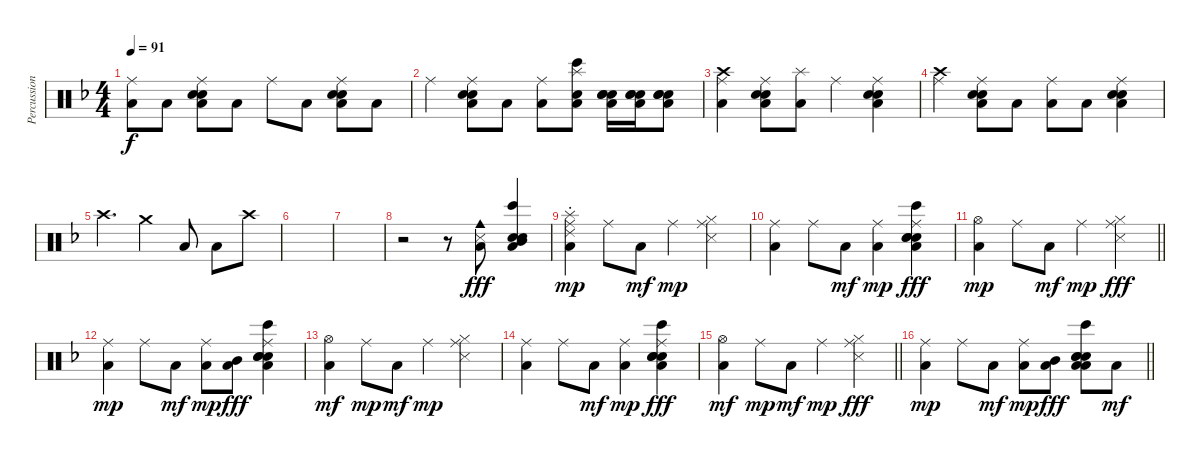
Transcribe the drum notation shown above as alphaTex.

\track ("Percussion" "Percussion") {instrument percussion}
\staff {score}
\articulation defaults
\ts (4 4)
\tempo 91
\clef neutral
\ks f
("Low Floor Tom (hit)" "Ride (middle)").8{dy f} "Low Floor Tom (hit)".8 ("Electric Snare (hit)" "Low Floor Tom (hit)" "Snare (hit) 2" "Ride (middle)").8 "Low Floor Tom (hit)".8 "Ride (middle)".8 "Low Floor Tom (hit)".8 ("Electric Snare (hit)" "Low Floor Tom (hit)" "Snare (hit) 2" "Ride (middle)").8 "Low Floor Tom (hit)".8 |
"Ride (middle)".4 ("Electric Snare (hit)" "Low Floor Tom (hit)" "Snare (hit) 2" "Ride (middle)").8 "Low Floor Tom (hit)".8 ("Low Floor Tom (hit)" "Ride (middle)").8 ("Bongo High (hit)" "Low Floor Tom (hit)" "Snare (hit) 2" "Splash (hit)").8 ("Low Floor Tom (hit)" "Snare (hit) 2" "Electric Snare (hit)" "Hand Clap (hit)").16 ("Low Floor Tom (hit)" "Snare (hit) 2" "Electric Snare (hit)" "Hand Clap (hit)").16 ("Low Floor Tom (hit)" "Snare (hit) 2" "Electric Snare (hit)" "Hand Clap (hit)").8 |
("Low Floor Tom (hit)" "Crash high (hit)" "Ride (middle)").4 ("Low Floor Tom (hit)" "Snare (hit) 2" "Electric Snare (hit)" "Ride (middle)").8 ("Low Floor Tom (hit)" "Splash (hit)").8 "Ride (middle)".4 ("Electric Snare (hit)" "Snare (hit) 2" "Low Floor Tom (hit)" "Ride (middle)").4 |
("Crash high (hit)" "Ride (middle)").4 ("Low Floor Tom (hit)" "Snare (hit) 2" "Electric Snare (hit)" "Ride (middle)").8 "Low Floor Tom (hit)".8 ("Low Floor Tom (hit)" "Ride (middle)").8 "Low Floor Tom (hit)".8 ("Electric Snare (hit)" "Low Floor Tom (hit)" "Ride (middle)" "Snare (hit) 2").4 |
"Crash high (hit)".4{d} "Crash medium (hit)".4 "Low Floor Tom (hit)".8 "Low Floor Tom (hit)".8 "Crash high (hit)".8 |
|
|
r.2 r.8 ("Low Floor Tom (hit)" "Cowbell medium (hit)" "Snare (side stick) 3").8{dy fff} ("Low Floor Tom (hit)" "Electric Snare (hit)" "Mid Tom (hit)" "Snare (hit) 2" "Bongo High (hit)").4 |
("Low Floor Tom (hit)" "Splash (hit)" "Ride (choke) 2" "Ride (middle)").4{dy mp} "Ride (middle)".8 "Low Floor Tom (hit)".8{dy mf} "Ride (middle)".4{dy mp} ("Hi-Hat (closed)" "Snare (side stick) 3" "Ride (middle)").4 |
("Low Floor Tom (hit)" "Ride (middle)").4 "Ride (middle)".8 "Low Floor Tom (hit)".8{dy mf} ("Low Floor Tom (hit)" "Ride (middle)").4{dy mp} ("Low Floor Tom (hit)" "Ride (middle)" "Snare (hit) 2" "Electric Snare (hit)" "Bongo High (hit)" "Hand Clap (hit)").4{dy fff} |
\barLineRight lightlight
("Low Floor Tom (hit)" "Hi-Hat (open)").4{dy mp} "Ride (middle)".8 "Low Floor Tom (hit)".8{dy mf} "Ride (middle)".4{dy mp} ("Hi-Hat (closed)" "Snare (side stick) 3" "Ride (middle)").4{dy fff} |
("Low Floor Tom (hit)" "Ride (middle)").4{dy mp} "Ride (middle)".8 "Low Floor Tom (hit)".8{dy mf} ("Low Floor Tom (hit)" "Ride (middle)").8{dy mp} ("Low Floor Tom (hit)" "Mid Tom (hit)").8{dy fff} ("Ride (middle)" "Hand Clap (hit)" "Low Floor Tom (hit)" "Snare (hit) 2" "Electric Snare (hit)" "Bongo High (hit)").4 |
("Low Floor Tom (hit)" "Hi-Hat (open)").4{dy mf} "Ride (middle)".8{dy mp} "Low Floor Tom (hit)".8{dy mf} "Ride (middle)".4{dy mp} ("Hi-Hat (closed)" "Snare (side stick) 3" "Ride (middle)").4 |
("Low Floor Tom (hit)" "Ride (middle)").4 "Ride (middle)".8 "Low Floor Tom (hit)".8{dy mf} ("Low Floor Tom (hit)" "Ride (middle)").4{dy mp} ("Low Floor Tom (hit)" "Ride (middle)" "Snare (hit) 2" "Electric Snare (hit)" "Bongo High (hit)" "Hand Clap (hit)").4{dy fff} |
\barLineRight lightlight
("Low Floor Tom (hit)" "Hi-Hat (open)").4{dy mf} "Ride (middle)".8{dy mp} "Low Floor Tom (hit)".8{dy mf} "Ride (middle)".4{dy mp} ("Hi-Hat (closed)" "Snare (side stick) 3" "Ride (middle)").4{dy fff} |
\barLineRight lightlight
("Low Floor Tom (hit)" "Ride (middle)").4{dy mp} "Ride (middle)".8 "Low Floor Tom (hit)".8{dy mf} ("Low Floor Tom (hit)" "Ride (middle)").8{dy mp} ("Low Floor Tom (hit)" "Mid Tom (hit)").8{dy fff} ("Low Floor Tom (hit)" "Hand Clap (hit)" "Low Floor Tom (hit)" "Snare (hit) 2" "Electric Snare (hit)" "Bongo High (hit)").8 "Low Floor Tom (hit)".8{dy mf}
